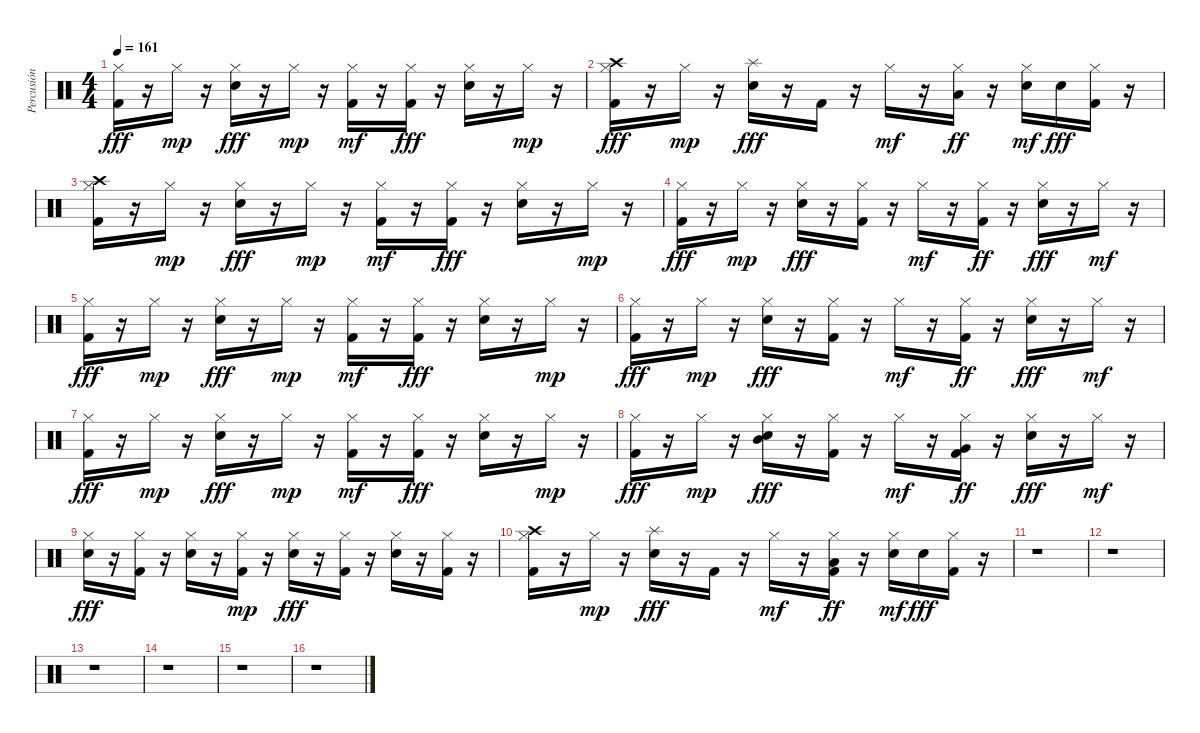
\track ("Percusión" "Percusión") {instrument percussion}
\staff {score}
\articulation defaults
\ts (4 4)
\tempo 161
\clef neutral
\ks c
("Hi-Hat (closed)" "Kick (hit) 2").16{dy fff} r.16 "Hi-Hat (closed)".16{dy mp} r.16 ("Hi-Hat (closed)" "Snare (hit) 2").16{dy fff} r.16 "Hi-Hat (closed)".16{dy mp} r.16 ("Hi-Hat (closed)" "Kick (hit) 2").16{dy mf} r.16 ("Hi-Hat (closed)" "Kick (hit) 2").16{dy fff} r.16 ("Hi-Hat (closed)" "Snare (hit) 2").16 r.16 "Hi-Hat (closed)".16{dy mp} r.16 |
("Hi-Hat (closed)" "Crash high (hit)" "Kick (hit) 2").16{dy fff} r.16 "Hi-Hat (closed)".16{dy mp} r.16 ("Splash (hit)" "Snare (hit) 2").16{dy fff} r.16 "Kick (hit) 2".16 r.16 "Hi-Hat (closed)".16{dy mf} r.16 ("Hi-Hat (closed)" "Low Tom (hit)").16{dy ff} r.16 ("Hi-Hat (closed)" "Snare (hit) 2").16{dy mf} "Snare (hit) 2".16{dy fff} ("Hi-Hat (closed)" "Kick (hit) 2").16 r.16 |
("Hi-Hat (closed)" "Crash high (hit)" "Kick (hit) 2").16 r.16 "Hi-Hat (closed)".16{dy mp} r.16 ("Hi-Hat (closed)" "Snare (hit) 2").16{dy fff} r.16 "Hi-Hat (closed)".16{dy mp} r.16 ("Hi-Hat (closed)" "Kick (hit) 2").16{dy mf} r.16 ("Hi-Hat (closed)" "Kick (hit) 2").16{dy fff} r.16 ("Hi-Hat (closed)" "Snare (hit) 2").16 r.16 "Hi-Hat (closed)".16{dy mp} r.16 |
("Hi-Hat (closed)" "Kick (hit) 2").16{dy fff} r.16 "Hi-Hat (closed)".16{dy mp} r.16 ("Hi-Hat (closed)" "Snare (hit) 2").16{dy fff} r.16 ("Hi-Hat (closed)" "Kick (hit) 2").16 r.16 "Hi-Hat (closed)".16{dy mf} r.16 ("Hi-Hat (closed)" "Kick (hit) 2").16{dy ff} r.16 ("Hi-Hat (closed)" "Snare (hit) 2").16{dy fff} r.16 "Hi-Hat (closed)".16{dy mf} r.16 |
("Hi-Hat (closed)" "Kick (hit) 2").16{dy fff} r.16 "Hi-Hat (closed)".16{dy mp} r.16 ("Hi-Hat (closed)" "Snare (hit) 2").16{dy fff} r.16 "Hi-Hat (closed)".16{dy mp} r.16 ("Hi-Hat (closed)" "Kick (hit) 2").16{dy mf} r.16 ("Hi-Hat (closed)" "Kick (hit) 2").16{dy fff} r.16 ("Hi-Hat (closed)" "Snare (hit) 2").16 r.16 "Hi-Hat (closed)".16{dy mp} r.16 |
("Hi-Hat (closed)" "Kick (hit) 2").16{dy fff} r.16 "Hi-Hat (closed)".16{dy mp} r.16 ("Hi-Hat (closed)" "Snare (hit) 2").16{dy fff} r.16 ("Hi-Hat (closed)" "Kick (hit) 2").16 r.16 "Hi-Hat (closed)".16{dy mf} r.16 ("Hi-Hat (closed)" "Kick (hit) 2").16{dy ff} r.16 ("Hi-Hat (closed)" "Snare (hit) 2").16{dy fff} r.16 "Hi-Hat (closed)".16{dy mf} r.16 |
("Hi-Hat (closed)" "Kick (hit) 2").16{dy fff} r.16 "Hi-Hat (closed)".16{dy mp} r.16 ("Hi-Hat (closed)" "Snare (hit) 2").16{dy fff} r.16 "Hi-Hat (closed)".16{dy mp} r.16 ("Hi-Hat (closed)" "Kick (hit) 2").16{dy mf} r.16 ("Hi-Hat (closed)" "Kick (hit) 2").16{dy fff} r.16 ("Hi-Hat (closed)" "Snare (hit) 2").16 r.16 "Hi-Hat (closed)".16{dy mp} r.16 |
("Hi-Hat (closed)" "Kick (hit) 2").16{dy fff} r.16 "Hi-Hat (closed)".16{dy mp} r.16 ("Mid Tom (hit)" "Hi-Hat (closed)" "Snare (hit) 2").16{dy fff} r.16 ("Hi-Hat (closed)" "Kick (hit) 2").16 r.16 "Hi-Hat (closed)".16{dy mf} r.16 ("Hi-Hat (closed)" "Kick (hit) 2" "Very Low Tom (hit)").16{dy ff} r.16 ("Hi-Hat (closed)" "Snare (hit) 2").16{dy fff} r.16 "Hi-Hat (closed)".16{dy mf} r.16 |
("Hi-Hat (closed)" "Snare (hit) 2").16{dy fff} r.16 ("Hi-Hat (closed)" "Kick (hit) 2").16 r.16 ("Hi-Hat (closed)" "Snare (hit) 2").16 r.16 ("Hi-Hat (closed)" "Kick (hit) 2").16{dy mp} r.16 ("Hi-Hat (closed)" "Snare (hit) 2").16{dy fff} r.16 ("Hi-Hat (closed)" "Kick (hit) 2").16 r.16 ("Hi-Hat (closed)" "Snare (hit) 2").16 r.16 ("Hi-Hat (closed)" "Kick (hit) 2").16 r.16 |
("Hi-Hat (closed)" "Crash high (hit)" "Kick (hit) 2").16 r.16 "Hi-Hat (closed)".16{dy mp} r.16 ("Splash (hit)" "Snare (hit) 2").16{dy fff} r.16 "Kick (hit) 2".16 r.16 "Hi-Hat (closed)".16{dy mf} r.16 ("Hi-Hat (closed)" "Kick (hit) 2" "Low Tom (hit)").16{dy ff} r.16 ("Hi-Hat (closed)" "Snare (hit) 2").16{dy mf} "Snare (hit) 2".16{dy fff} ("Hi-Hat (closed)" "Kick (hit) 2").16 r.16 |
r.1 |
r.1 |
r.1 |
r.1 |
r.1 |
r.1
